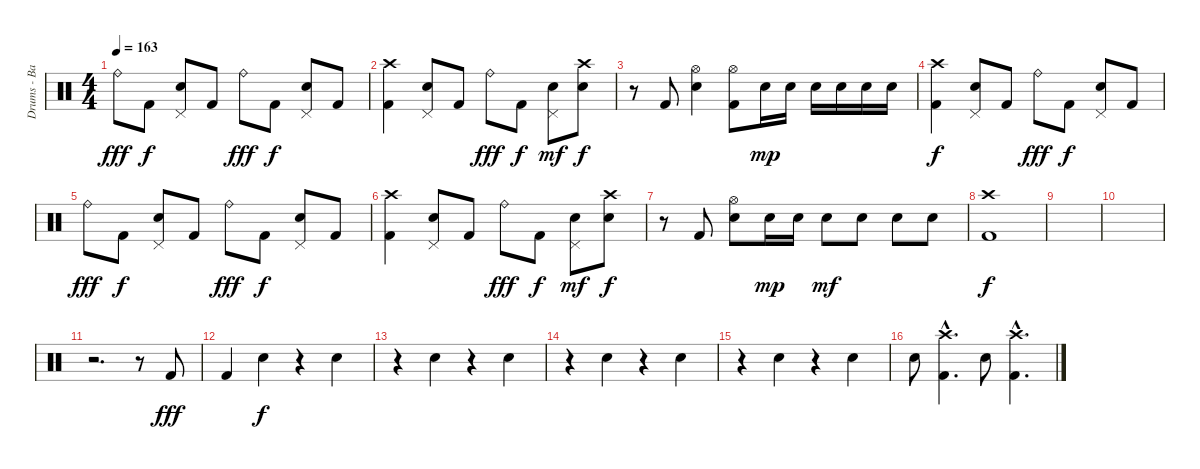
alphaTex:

\track ("Drums - Bateria" "Drums - Ba") {instrument percussion}
\staff {score}
\articulation defaults
\ts (4 4)
\tempo 163
\clef neutral
\ks c "Ride (bell)".8{dy fff} "Kick (hit) 2".8{dy f}
("Pedal Hi-Hat (hit)" "Electric Snare (hit)").8 "Kick (hit) 2".8 "Ride (bell)".8{dy fff} "Kick (hit) 2".8{dy f} ("Pedal Hi-Hat (hit)" "Electric Snare (hit)").8 "Kick (hit) 2".8 |
("Crash high (hit)" "Kick (hit) 2").4 ("Pedal Hi-Hat (hit)" "Electric Snare (hit)").8 "Kick (hit) 2".8 "Ride (bell)".8{dy fff} "Kick (hit) 2".8{dy f} ("Pedal Hi-Hat (hit)" "Electric Snare (hit)").8{dy mf} ("Crash high (hit)" "Electric Snare (hit)").8{dy f} |
r.8 "Kick (hit) 2".8 ("Hi-Hat (open)" "Electric Snare (hit)").4 ("Hi-Hat (open)" "Kick (hit) 2").8 "Electric Snare (hit)".16{dy mp} "Electric Snare (hit)".16 "Electric Snare (hit)".16 "Electric Snare (hit)".16 "Electric Snare (hit)".16 "Electric Snare (hit)".16 |
("Crash high (hit)" "Kick (hit) 2").4{dy f} ("Pedal Hi-Hat (hit)" "Electric Snare (hit)").8 "Kick (hit) 2".8 "Ride (bell)".8{dy fff} "Kick (hit) 2".8{dy f} ("Pedal Hi-Hat (hit)" "Electric Snare (hit)").8 "Kick (hit) 2".8 |
"Ride (bell)".8{dy fff} "Kick (hit) 2".8{dy f} ("Pedal Hi-Hat (hit)" "Electric Snare (hit)").8 "Kick (hit) 2".8 "Ride (bell)".8{dy fff} "Kick (hit) 2".8{dy f} ("Pedal Hi-Hat (hit)" "Electric Snare (hit)").8 "Kick (hit) 2".8 |
("Crash high (hit)" "Kick (hit) 2").4 ("Pedal Hi-Hat (hit)" "Electric Snare (hit)").8 "Kick (hit) 2".8 "Ride (bell)".8{dy fff} "Kick (hit) 2".8{dy f} ("Pedal Hi-Hat (hit)" "Electric Snare (hit)").8{dy mf} ("Crash high (hit)" "Electric Snare (hit)").8{dy f} |
r.8 "Kick (hit) 2".8 ("Hi-Hat (open)" "Electric Snare (hit)").8 "Electric Snare (hit)".16{dy mp} "Electric Snare (hit)".16 "Electric Snare (hit)".8{dy mf} "Electric Snare (hit)".8 "Electric Snare (hit)".8 "Electric Snare (hit)".8 |
("Crash high (hit)" "Kick (hit) 2").1{dy f} |
|
|
r.2{d} r.8 "Kick (hit) 2".8{dy fff} |
"Kick (hit) 2".4 "Electric Snare (hit)".4{dy f} r.4 "Electric Snare (hit)".4 |
r.4 "Electric Snare (hit)".4 r.4 "Electric Snare (hit)".4 |
r.4 "Electric Snare (hit)".4 r.4 "Electric Snare (hit)".4 |
r.4 "Electric Snare (hit)".4 r.4 "Electric Snare (hit)".4 |
"Electric Snare (hit)".8 ("Crash high (hit)"{hac} "Kick (hit) 2"{hac}).4{d} "Electric Snare (hit)".8 ("Crash high (hit)"{hac} "Kick (hit) 2"{hac}).4{d}
